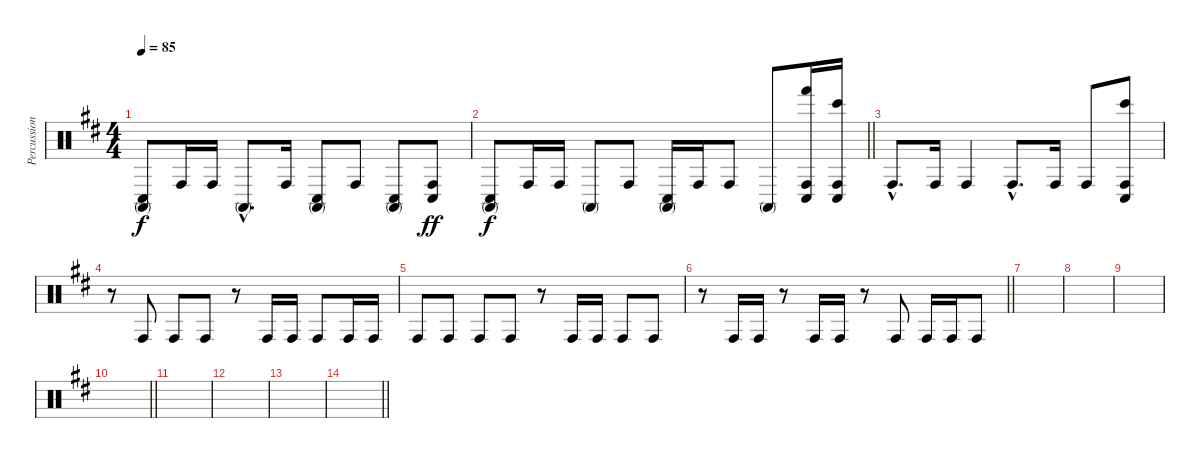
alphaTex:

\track ("Percussions" "Percussion") {instrument percussion}
\staff {score}
\articulation defaults
\ts (4 4)
\tempo 85
\clef neutral
\ks bminor
("Conga low (hit)" "Conga high (mute)").8{dy f} "Conga high (hit)".16 "Conga high (hit)".16 "Conga high (mute)"{hac}.8{d} "Conga high (hit)".16 ("Conga low (hit)" "Conga high (mute)").8 "Conga high (hit)".8 ("Conga low (hit)" "Conga high (mute)").8 ("Conga high (hit)" "Conga low (hit)").8{dy ff} |
\barLineRight lightlight
("Conga low (hit)" "Conga high (mute)").8{dy f} "Conga high (hit)".16 "Conga high (hit)".16 "Conga high (mute)".8 "Conga high (hit)".8 ("Conga low (hit)" "Conga high (mute)").16 "Conga high (hit)".16 "Conga high (hit)".8 "Conga high (mute)".8 ("Hand (hit)" "Conga high (hit)" "Conga low (hit)").16 ("Bongo High (hit)" "Conga high (hit)" "Conga low (hit)").16 |
"Conga high (hit)"{hac}.8{d} "Conga high (hit)".16 "Conga high (hit)".4 "Conga high (hit)"{hac}.8{d} "Conga high (hit)".16 "Conga high (hit)".8 ("Bongo High (hit)" "Conga high (hit)" "Conga low (hit)").8 |
r.8 "Conga high (hit)".8 "Conga high (hit)".8 "Conga high (hit)".8 r.8 "Conga high (hit)".16 "Conga high (hit)".16 "Conga high (hit)".8 "Conga high (hit)".16 "Conga high (hit)".16 |
"Conga high (hit)".8 "Conga high (hit)".8 "Conga high (hit)".8 "Conga high (hit)".8 r.8 "Conga high (hit)".16 "Conga high (hit)".16 "Conga high (hit)".8 "Conga high (hit)".8 |
\barLineRight lightlight
r.8 "Conga high (hit)".16 "Conga high (hit)".16 r.8 "Conga high (hit)".16 "Conga high (hit)".16 r.8 "Conga high (hit)".8 "Conga high (hit)".16 "Conga high (hit)".16 "Conga high (hit)".8 |
|
|
|
\barLineRight lightlight
|
|
|
|
\barLineRight lightlight
